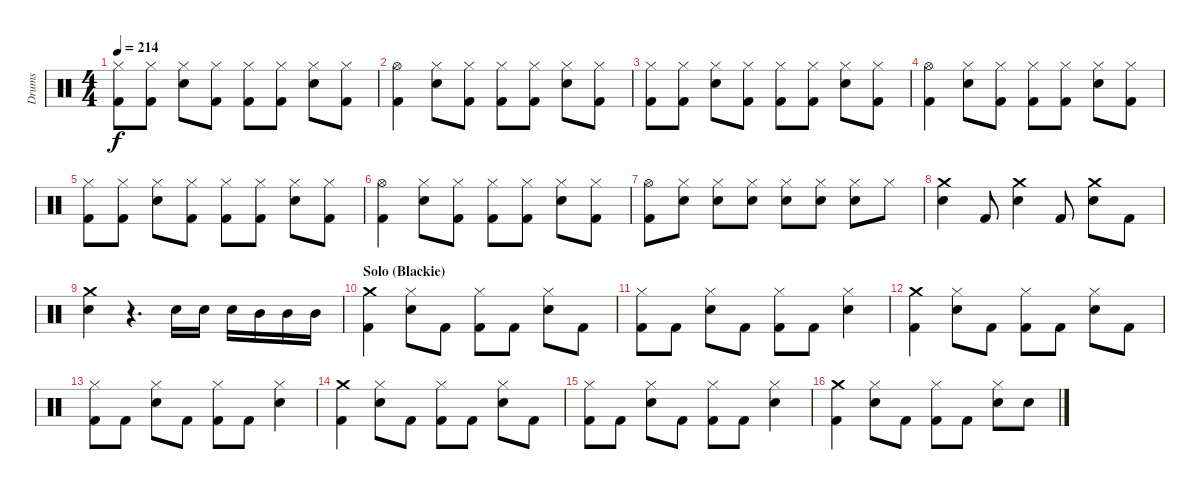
\track ("Drums" "Drums") {instrument percussion}
\staff {score}
\articulation defaults
\ts (4 4)
\tempo 214
\clef neutral
\ks c
("Hi-Hat (closed)" "Kick (hit) 2").8{dy f} ("Hi-Hat (closed)" "Kick (hit) 2").8 ("Hi-Hat (closed)" "Electric Snare (hit)").8 ("Hi-Hat (closed)" "Kick (hit) 2").8 ("Hi-Hat (closed)" "Kick (hit) 2").8 ("Hi-Hat (closed)" "Kick (hit) 2").8 ("Hi-Hat (closed)" "Electric Snare (hit)").8 ("Hi-Hat (closed)" "Kick (hit) 2").8 |
("Hi-Hat (open)" "Kick (hit) 2").4 ("Hi-Hat (closed)" "Electric Snare (hit)").8 ("Hi-Hat (closed)" "Kick (hit) 2").8 ("Hi-Hat (closed)" "Kick (hit) 2").8 ("Hi-Hat (closed)" "Kick (hit) 2").8 ("Hi-Hat (closed)" "Electric Snare (hit)").8 ("Hi-Hat (closed)" "Kick (hit) 2").8 |
("Hi-Hat (closed)" "Kick (hit) 2").8 ("Hi-Hat (closed)" "Kick (hit) 2").8 ("Hi-Hat (closed)" "Electric Snare (hit)").8 ("Hi-Hat (closed)" "Kick (hit) 2").8 ("Hi-Hat (closed)" "Kick (hit) 2").8 ("Hi-Hat (closed)" "Kick (hit) 2").8 ("Hi-Hat (closed)" "Electric Snare (hit)").8 ("Hi-Hat (closed)" "Kick (hit) 2").8 |
("Hi-Hat (open)" "Kick (hit) 2").4 ("Hi-Hat (closed)" "Electric Snare (hit)").8 ("Hi-Hat (closed)" "Kick (hit) 2").8 ("Hi-Hat (closed)" "Kick (hit) 2").8 ("Hi-Hat (closed)" "Kick (hit) 2").8 ("Hi-Hat (closed)" "Electric Snare (hit)").8 ("Hi-Hat (closed)" "Kick (hit) 2").8 |
("Hi-Hat (closed)" "Kick (hit) 2").8 ("Hi-Hat (closed)" "Kick (hit) 2").8 ("Hi-Hat (closed)" "Electric Snare (hit)").8 ("Hi-Hat (closed)" "Kick (hit) 2").8 ("Hi-Hat (closed)" "Kick (hit) 2").8 ("Hi-Hat (closed)" "Kick (hit) 2").8 ("Hi-Hat (closed)" "Electric Snare (hit)").8 ("Hi-Hat (closed)" "Kick (hit) 2").8 |
("Hi-Hat (open)" "Kick (hit) 2").4 ("Hi-Hat (closed)" "Electric Snare (hit)").8 ("Hi-Hat (closed)" "Kick (hit) 2").8 ("Hi-Hat (closed)" "Kick (hit) 2").8 ("Hi-Hat (closed)" "Kick (hit) 2").8 ("Hi-Hat (closed)" "Electric Snare (hit)").8 ("Hi-Hat (closed)" "Kick (hit) 2").8 |
("Hi-Hat (open)" "Kick (hit) 2").8 ("Hi-Hat (closed)" "Electric Snare (hit)").8 ("Hi-Hat (closed)" "Electric Snare (hit)").8 ("Hi-Hat (closed)" "Electric Snare (hit)").8 ("Hi-Hat (closed)" "Electric Snare (hit)").8 ("Hi-Hat (closed)" "Electric Snare (hit)").8 ("Hi-Hat (closed)" "Electric Snare (hit)").8 "Hi-Hat (closed)".8 |
("Crash medium (hit)" "Electric Snare (hit)").4 "Kick (hit) 2".8 ("Crash medium (hit)" "Electric Snare (hit)").4 "Kick (hit) 2".8 ("Crash medium (hit)" "Electric Snare (hit)").8 "Kick (hit) 2".8 |
("Crash medium (hit)" "Electric Snare (hit)").4 r.4{d} "Electric Snare (hit)".16 "Electric Snare (hit)".16 "Electric Snare (hit)".16 "Mid Tom (hit)".16 "Mid Tom (hit)".16 "Mid Tom (hit)".16 |
\section ("" "Solo (Blackie)")
("Crash medium (hit)" "Kick (hit) 2").4 ("Hi-Hat (closed)" "Electric Snare (hit)").8 "Kick (hit) 2".8 ("Hi-Hat (closed)" "Kick (hit) 2").8 "Kick (hit) 2".8 ("Hi-Hat (closed)" "Electric Snare (hit)").8 "Kick (hit) 2".8 |
("Hi-Hat (closed)" "Kick (hit) 2").8 "Kick (hit) 2".8 ("Hi-Hat (closed)" "Electric Snare (hit)").8 "Kick (hit) 2".8 ("Hi-Hat (closed)" "Kick (hit) 2").8 "Kick (hit) 2".8 ("Hi-Hat (closed)" "Electric Snare (hit)").4 |
("Crash medium (hit)" "Kick (hit) 2").4 ("Hi-Hat (closed)" "Electric Snare (hit)").8 "Kick (hit) 2".8 ("Hi-Hat (closed)" "Kick (hit) 2").8 "Kick (hit) 2".8 ("Hi-Hat (closed)" "Electric Snare (hit)").8 "Kick (hit) 2".8 |
("Hi-Hat (closed)" "Kick (hit) 2").8 "Kick (hit) 2".8 ("Hi-Hat (closed)" "Electric Snare (hit)").8 "Kick (hit) 2".8 ("Hi-Hat (closed)" "Kick (hit) 2").8 "Kick (hit) 2".8 ("Hi-Hat (closed)" "Electric Snare (hit)").4 |
("Crash medium (hit)" "Kick (hit) 2").4 ("Hi-Hat (closed)" "Electric Snare (hit)").8 "Kick (hit) 2".8 ("Hi-Hat (closed)" "Kick (hit) 2").8 "Kick (hit) 2".8 ("Hi-Hat (closed)" "Electric Snare (hit)").8 "Kick (hit) 2".8 |
("Hi-Hat (closed)" "Kick (hit) 2").8 "Kick (hit) 2".8 ("Hi-Hat (closed)" "Electric Snare (hit)").8 "Kick (hit) 2".8 ("Hi-Hat (closed)" "Kick (hit) 2").8 "Kick (hit) 2".8 ("Hi-Hat (closed)" "Electric Snare (hit)").4 |
("Crash medium (hit)" "Kick (hit) 2").4 ("Hi-Hat (closed)" "Electric Snare (hit)").8 "Kick (hit) 2".8 ("Hi-Hat (closed)" "Kick (hit) 2").8 "Kick (hit) 2".8 ("Hi-Hat (closed)" "Electric Snare (hit)").8 "Electric Snare (hit)".8
